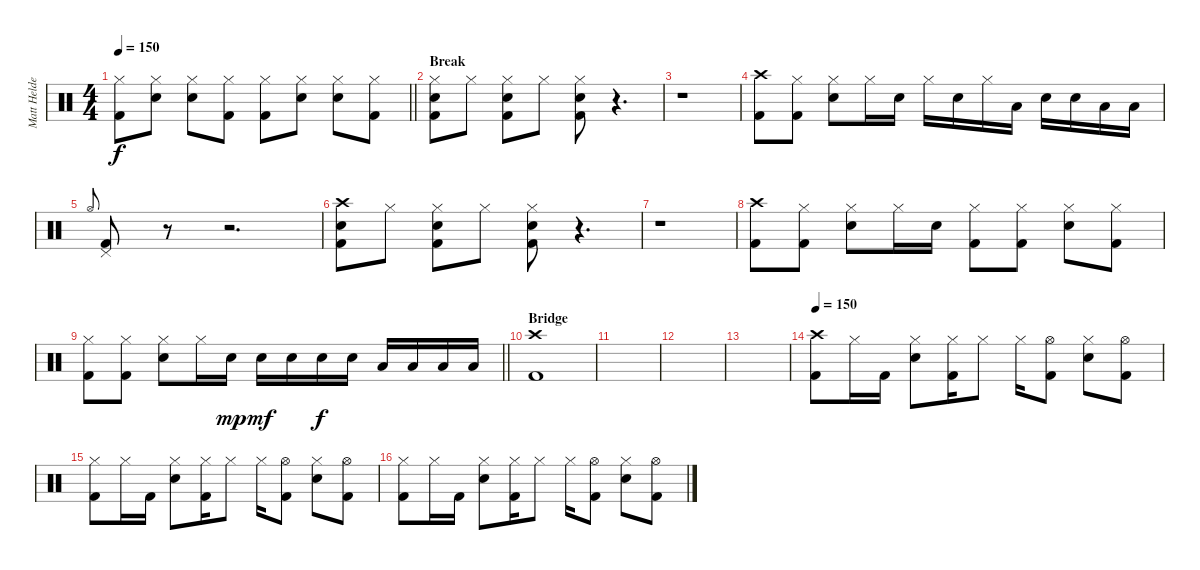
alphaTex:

\track ("Matt Helders - Drums MIDI" "Matt Helde") {instrument percussion}
\staff {score}
\articulation defaults
\ts (4 4)
\tempo 150
\clef neutral
\barLineRight lightlight
\ks c
("Hi-Hat (closed)" "Kick (hit) 2").8{dy f} ("Hi-Hat (closed)" "Snare (hit) 2").8 ("Hi-Hat (closed)" "Snare (hit) 2").8 ("Hi-Hat (closed)" "Kick (hit) 2").8 ("Hi-Hat (closed)" "Kick (hit) 2").8 ("Hi-Hat (closed)" "Snare (hit) 2").8 ("Hi-Hat (closed)" "Snare (hit) 2").8 ("Hi-Hat (closed)" "Kick (hit) 2").8 |
\section ("" "Break")
("Hi-Hat (closed)" "Snare (hit) 2" "Kick (hit) 2").8 "Hi-Hat (closed)".8 ("Hi-Hat (closed)" "Snare (hit) 2" "Kick (hit) 2").8 "Hi-Hat (closed)".8 ("Hi-Hat (closed)" "Snare (hit) 2" "Kick (hit) 2").8 r.4{d} |
r.1 |
("Crash high (hit)" "Kick (hit) 2").8 ("Hi-Hat (closed)" "Kick (hit) 2").8 ("Hi-Hat (closed)" "Snare (hit) 2").8 "Hi-Hat (closed)".16 "Snare (hit) 2".16 "Hi-Hat (closed)".16 "Snare (hit) 2".16 "Hi-Hat (closed)".16 "Low Tom (hit)".16 "Snare (hit) 2".16 "Snare (hit) 2".16 "Low Tom (hit)".16 "Low Tom (hit)".16 |
"Hi-Hat (open)"{h}.8{gr onbeat} ("Pedal Hi-Hat (hit)" "Kick (hit) 2").8 r.8 r.2{d} |
("Crash high (hit)" "Snare (hit) 2" "Kick (hit) 2").8 "Hi-Hat (closed)".8 ("Hi-Hat (closed)" "Snare (hit) 2" "Kick (hit) 2").8 "Hi-Hat (closed)".8 ("Hi-Hat (closed)" "Snare (hit) 2" "Kick (hit) 2").8 r.4{d} |
r.1 |
("Crash high (hit)" "Kick (hit) 2").8 ("Hi-Hat (closed)" "Kick (hit) 2").8 ("Hi-Hat (closed)" "Snare (hit) 2").8 "Hi-Hat (closed)".16 "Snare (hit) 2".16 ("Hi-Hat (closed)" "Kick (hit) 2").8 ("Hi-Hat (closed)" "Kick (hit) 2").8 ("Hi-Hat (closed)" "Snare (hit) 2").8 ("Hi-Hat (closed)" "Kick (hit) 2").8 |
\barLineRight lightlight
("Hi-Hat (closed)" "Kick (hit) 2").8 ("Hi-Hat (closed)" "Kick (hit) 2").8 ("Hi-Hat (closed)" "Snare (hit) 2").8 "Hi-Hat (closed)".16 "Snare (hit) 2".16{dy mp} "Snare (hit) 2".16{dy mf} "Snare (hit) 2".16 "Snare (hit) 2".16{dy f} "Snare (hit) 2".16 "Low Tom (hit)".16 "Low Tom (hit)".16 "Low Floor Tom (hit)".16 "Low Floor Tom (hit)".16 |
\section ("" "Bridge")
("Crash high (hit)" "Kick (hit) 2").1 |
|
|
|
\tempo 150
("Crash high (hit)" "Kick (hit) 2").8 "Hi-Hat (closed)".16 "Kick (hit) 2".16 ("Hi-Hat (closed)" "Snare (hit) 2").8 ("Hi-Hat (closed)" "Kick (hit) 2").16 "Hi-Hat (closed)".8 "Hi-Hat (closed)".16 ("Hi-Hat (open)" "Kick (hit) 2").8 ("Hi-Hat (closed)" "Snare (hit) 2").8 ("Hi-Hat (open)" "Kick (hit) 2").8 |
("Hi-Hat (closed)" "Kick (hit) 2").8 "Hi-Hat (closed)".16 "Kick (hit) 2".16 ("Hi-Hat (closed)" "Snare (hit) 2").8 ("Hi-Hat (closed)" "Kick (hit) 2").16 "Hi-Hat (closed)".8 "Hi-Hat (closed)".16 ("Hi-Hat (open)" "Kick (hit) 2").8 ("Hi-Hat (closed)" "Snare (hit) 2").8 ("Hi-Hat (open)" "Kick (hit) 2").8 |
("Hi-Hat (closed)" "Kick (hit) 2").8 "Hi-Hat (closed)".16 "Kick (hit) 2".16 ("Hi-Hat (closed)" "Snare (hit) 2").8 ("Hi-Hat (closed)" "Kick (hit) 2").16 "Hi-Hat (closed)".8 "Hi-Hat (closed)".16 ("Hi-Hat (open)" "Kick (hit) 2").8 ("Hi-Hat (closed)" "Snare (hit) 2").8 ("Hi-Hat (open)" "Kick (hit) 2").8
